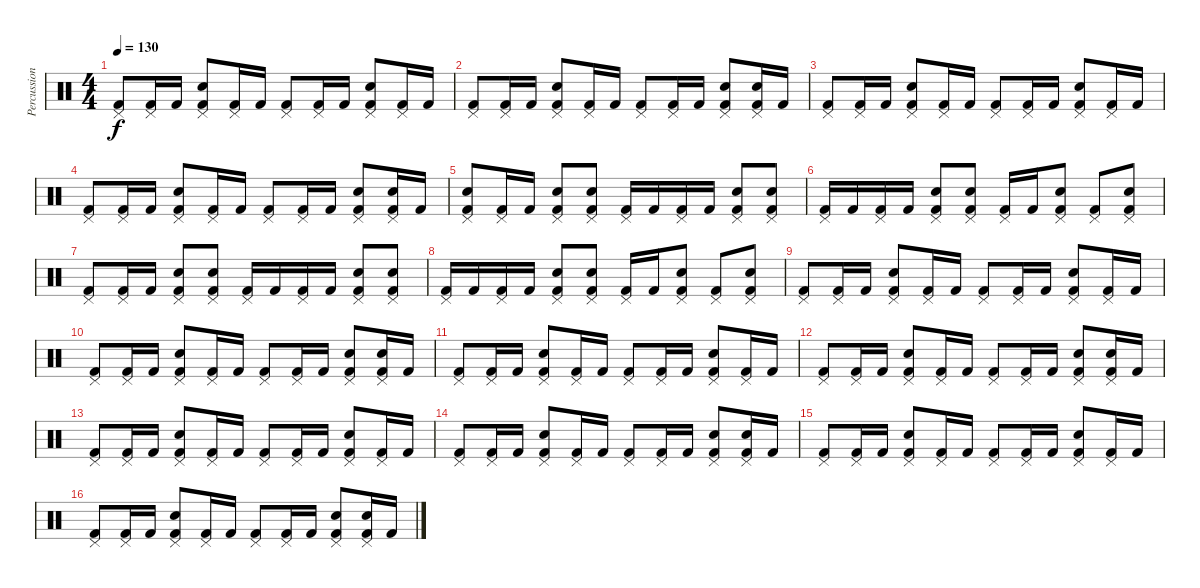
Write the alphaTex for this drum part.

\track ("Percussion" "Percussion") {instrument percussion}
\staff {score}
\articulation defaults
\ts (4 4)
\tempo 130
\clef neutral
\ks c
("Pedal Hi-Hat (hit)" "Kick (hit) 2").8{dy f} ("Pedal Hi-Hat (hit)" "Kick (hit) 2").16 "Kick (hit) 2".16 ("Pedal Hi-Hat (hit)" "Snare (hit) 2" "Kick (hit) 2").8 ("Pedal Hi-Hat (hit)" "Kick (hit) 2").16 "Kick (hit) 2".16 ("Pedal Hi-Hat (hit)" "Kick (hit) 2").8 ("Pedal Hi-Hat (hit)" "Kick (hit) 2").16 "Kick (hit) 2".16 ("Pedal Hi-Hat (hit)" "Snare (hit) 2" "Kick (hit) 2").8 ("Pedal Hi-Hat (hit)" "Kick (hit) 2").16 "Kick (hit) 2".16 |
("Pedal Hi-Hat (hit)" "Kick (hit) 2").8 ("Pedal Hi-Hat (hit)" "Kick (hit) 2").16 "Kick (hit) 2".16 ("Pedal Hi-Hat (hit)" "Snare (hit) 2" "Kick (hit) 2").8 ("Pedal Hi-Hat (hit)" "Kick (hit) 2").16 "Kick (hit) 2".16 ("Pedal Hi-Hat (hit)" "Kick (hit) 2").8 ("Pedal Hi-Hat (hit)" "Kick (hit) 2").16 "Kick (hit) 2".16 ("Pedal Hi-Hat (hit)" "Snare (hit) 2" "Kick (hit) 2").8 ("Pedal Hi-Hat (hit)" "Snare (hit) 2" "Kick (hit) 2").16 "Kick (hit) 2".16 |
("Pedal Hi-Hat (hit)" "Kick (hit) 2").8 ("Pedal Hi-Hat (hit)" "Kick (hit) 2").16 "Kick (hit) 2".16 ("Pedal Hi-Hat (hit)" "Snare (hit) 2" "Kick (hit) 2").8 ("Pedal Hi-Hat (hit)" "Kick (hit) 2").16 "Kick (hit) 2".16 ("Pedal Hi-Hat (hit)" "Kick (hit) 2").8 ("Pedal Hi-Hat (hit)" "Kick (hit) 2").16 "Kick (hit) 2".16 ("Pedal Hi-Hat (hit)" "Snare (hit) 2" "Kick (hit) 2").8 ("Pedal Hi-Hat (hit)" "Kick (hit) 2").16 "Kick (hit) 2".16 |
("Pedal Hi-Hat (hit)" "Kick (hit) 2").8 ("Pedal Hi-Hat (hit)" "Kick (hit) 2").16 "Kick (hit) 2".16 ("Pedal Hi-Hat (hit)" "Snare (hit) 2" "Kick (hit) 2").8 ("Pedal Hi-Hat (hit)" "Kick (hit) 2").16 "Kick (hit) 2".16 ("Pedal Hi-Hat (hit)" "Kick (hit) 2").8 ("Pedal Hi-Hat (hit)" "Kick (hit) 2").16 "Kick (hit) 2".16 ("Pedal Hi-Hat (hit)" "Snare (hit) 2" "Kick (hit) 2").8 ("Pedal Hi-Hat (hit)" "Snare (hit) 2" "Kick (hit) 2").16 "Kick (hit) 2".16 |
("Pedal Hi-Hat (hit)" "Snare (hit) 2" "Kick (hit) 2").8 ("Pedal Hi-Hat (hit)" "Kick (hit) 2").16 "Kick (hit) 2".16 ("Pedal Hi-Hat (hit)" "Snare (hit) 2" "Kick (hit) 2").8 ("Pedal Hi-Hat (hit)" "Snare (hit) 2" "Kick (hit) 2").8 ("Pedal Hi-Hat (hit)" "Kick (hit) 2").16 "Kick (hit) 2".16 ("Pedal Hi-Hat (hit)" "Kick (hit) 2").16 "Kick (hit) 2".16 ("Pedal Hi-Hat (hit)" "Snare (hit) 2" "Kick (hit) 2").8 ("Pedal Hi-Hat (hit)" "Snare (hit) 2" "Kick (hit) 2").8 |
("Pedal Hi-Hat (hit)" "Kick (hit) 2").16 "Kick (hit) 2".16 ("Pedal Hi-Hat (hit)" "Kick (hit) 2").16 "Kick (hit) 2".16 ("Pedal Hi-Hat (hit)" "Snare (hit) 2" "Kick (hit) 2").8 ("Pedal Hi-Hat (hit)" "Snare (hit) 2" "Kick (hit) 2").8 ("Pedal Hi-Hat (hit)" "Kick (hit) 2").16 "Kick (hit) 2".16 ("Pedal Hi-Hat (hit)" "Snare (hit) 2" "Kick (hit) 2").8 ("Pedal Hi-Hat (hit)" "Kick (hit) 2").8 ("Pedal Hi-Hat (hit)" "Snare (hit) 2" "Kick (hit) 2").8 |
("Pedal Hi-Hat (hit)" "Kick (hit) 2").8 ("Pedal Hi-Hat (hit)" "Kick (hit) 2").16 "Kick (hit) 2".16 ("Pedal Hi-Hat (hit)" "Snare (hit) 2" "Kick (hit) 2").8 ("Pedal Hi-Hat (hit)" "Snare (hit) 2" "Kick (hit) 2").8 ("Pedal Hi-Hat (hit)" "Kick (hit) 2").16 "Kick (hit) 2".16 ("Pedal Hi-Hat (hit)" "Kick (hit) 2").16 "Kick (hit) 2".16 ("Pedal Hi-Hat (hit)" "Snare (hit) 2" "Kick (hit) 2").8 ("Pedal Hi-Hat (hit)" "Snare (hit) 2" "Kick (hit) 2").8 |
("Pedal Hi-Hat (hit)" "Kick (hit) 2").16 "Kick (hit) 2".16 ("Pedal Hi-Hat (hit)" "Kick (hit) 2").16 "Kick (hit) 2".16 ("Pedal Hi-Hat (hit)" "Snare (hit) 2" "Kick (hit) 2").8 ("Pedal Hi-Hat (hit)" "Snare (hit) 2" "Kick (hit) 2").8 ("Pedal Hi-Hat (hit)" "Kick (hit) 2").16 "Kick (hit) 2".16 ("Pedal Hi-Hat (hit)" "Snare (hit) 2" "Kick (hit) 2").8 ("Pedal Hi-Hat (hit)" "Kick (hit) 2").8 ("Pedal Hi-Hat (hit)" "Snare (hit) 2" "Kick (hit) 2").8 |
("Pedal Hi-Hat (hit)" "Kick (hit) 2").8 ("Pedal Hi-Hat (hit)" "Kick (hit) 2").16 "Kick (hit) 2".16 ("Pedal Hi-Hat (hit)" "Snare (hit) 2" "Kick (hit) 2").8 ("Pedal Hi-Hat (hit)" "Kick (hit) 2").16 "Kick (hit) 2".16 ("Pedal Hi-Hat (hit)" "Kick (hit) 2").8 ("Pedal Hi-Hat (hit)" "Kick (hit) 2").16 "Kick (hit) 2".16 ("Pedal Hi-Hat (hit)" "Snare (hit) 2" "Kick (hit) 2").8 ("Pedal Hi-Hat (hit)" "Kick (hit) 2").16 "Kick (hit) 2".16 |
("Pedal Hi-Hat (hit)" "Kick (hit) 2").8 ("Pedal Hi-Hat (hit)" "Kick (hit) 2").16 "Kick (hit) 2".16 ("Pedal Hi-Hat (hit)" "Snare (hit) 2" "Kick (hit) 2").8 ("Pedal Hi-Hat (hit)" "Kick (hit) 2").16 "Kick (hit) 2".16 ("Pedal Hi-Hat (hit)" "Kick (hit) 2").8 ("Pedal Hi-Hat (hit)" "Kick (hit) 2").16 "Kick (hit) 2".16 ("Pedal Hi-Hat (hit)" "Snare (hit) 2" "Kick (hit) 2").8 ("Pedal Hi-Hat (hit)" "Snare (hit) 2" "Kick (hit) 2").16 "Kick (hit) 2".16 |
("Pedal Hi-Hat (hit)" "Kick (hit) 2").8 ("Pedal Hi-Hat (hit)" "Kick (hit) 2").16 "Kick (hit) 2".16 ("Pedal Hi-Hat (hit)" "Snare (hit) 2" "Kick (hit) 2").8 ("Pedal Hi-Hat (hit)" "Kick (hit) 2").16 "Kick (hit) 2".16 ("Pedal Hi-Hat (hit)" "Kick (hit) 2").8 ("Pedal Hi-Hat (hit)" "Kick (hit) 2").16 "Kick (hit) 2".16 ("Pedal Hi-Hat (hit)" "Snare (hit) 2" "Kick (hit) 2").8 ("Pedal Hi-Hat (hit)" "Kick (hit) 2").16 "Kick (hit) 2".16 |
("Pedal Hi-Hat (hit)" "Kick (hit) 2").8 ("Pedal Hi-Hat (hit)" "Kick (hit) 2").16 "Kick (hit) 2".16 ("Pedal Hi-Hat (hit)" "Snare (hit) 2" "Kick (hit) 2").8 ("Pedal Hi-Hat (hit)" "Kick (hit) 2").16 "Kick (hit) 2".16 ("Pedal Hi-Hat (hit)" "Kick (hit) 2").8 ("Pedal Hi-Hat (hit)" "Kick (hit) 2").16 "Kick (hit) 2".16 ("Pedal Hi-Hat (hit)" "Snare (hit) 2" "Kick (hit) 2").8 ("Pedal Hi-Hat (hit)" "Snare (hit) 2" "Kick (hit) 2").16 "Kick (hit) 2".16 |
("Pedal Hi-Hat (hit)" "Kick (hit) 2").8 ("Pedal Hi-Hat (hit)" "Kick (hit) 2").16 "Kick (hit) 2".16 ("Pedal Hi-Hat (hit)" "Snare (hit) 2" "Kick (hit) 2").8 ("Pedal Hi-Hat (hit)" "Kick (hit) 2").16 "Kick (hit) 2".16 ("Pedal Hi-Hat (hit)" "Kick (hit) 2").8 ("Pedal Hi-Hat (hit)" "Kick (hit) 2").16 "Kick (hit) 2".16 ("Pedal Hi-Hat (hit)" "Snare (hit) 2" "Kick (hit) 2").8 ("Pedal Hi-Hat (hit)" "Kick (hit) 2").16 "Kick (hit) 2".16 |
("Pedal Hi-Hat (hit)" "Kick (hit) 2").8 ("Pedal Hi-Hat (hit)" "Kick (hit) 2").16 "Kick (hit) 2".16 ("Pedal Hi-Hat (hit)" "Snare (hit) 2" "Kick (hit) 2").8 ("Pedal Hi-Hat (hit)" "Kick (hit) 2").16 "Kick (hit) 2".16 ("Pedal Hi-Hat (hit)" "Kick (hit) 2").8 ("Pedal Hi-Hat (hit)" "Kick (hit) 2").16 "Kick (hit) 2".16 ("Pedal Hi-Hat (hit)" "Snare (hit) 2" "Kick (hit) 2").8 ("Pedal Hi-Hat (hit)" "Snare (hit) 2" "Kick (hit) 2").16 "Kick (hit) 2".16 |
("Pedal Hi-Hat (hit)" "Kick (hit) 2").8 ("Pedal Hi-Hat (hit)" "Kick (hit) 2").16 "Kick (hit) 2".16 ("Pedal Hi-Hat (hit)" "Snare (hit) 2" "Kick (hit) 2").8 ("Pedal Hi-Hat (hit)" "Kick (hit) 2").16 "Kick (hit) 2".16 ("Pedal Hi-Hat (hit)" "Kick (hit) 2").8 ("Pedal Hi-Hat (hit)" "Kick (hit) 2").16 "Kick (hit) 2".16 ("Pedal Hi-Hat (hit)" "Snare (hit) 2" "Kick (hit) 2").8 ("Pedal Hi-Hat (hit)" "Kick (hit) 2").16 "Kick (hit) 2".16 |
("Pedal Hi-Hat (hit)" "Kick (hit) 2").8 ("Pedal Hi-Hat (hit)" "Kick (hit) 2").16 "Kick (hit) 2".16 ("Pedal Hi-Hat (hit)" "Snare (hit) 2" "Kick (hit) 2").8 ("Pedal Hi-Hat (hit)" "Kick (hit) 2").16 "Kick (hit) 2".16 ("Pedal Hi-Hat (hit)" "Kick (hit) 2").8 ("Pedal Hi-Hat (hit)" "Kick (hit) 2").16 "Kick (hit) 2".16 ("Pedal Hi-Hat (hit)" "Snare (hit) 2" "Kick (hit) 2").8 ("Pedal Hi-Hat (hit)" "Snare (hit) 2" "Kick (hit) 2").16 "Kick (hit) 2".16
